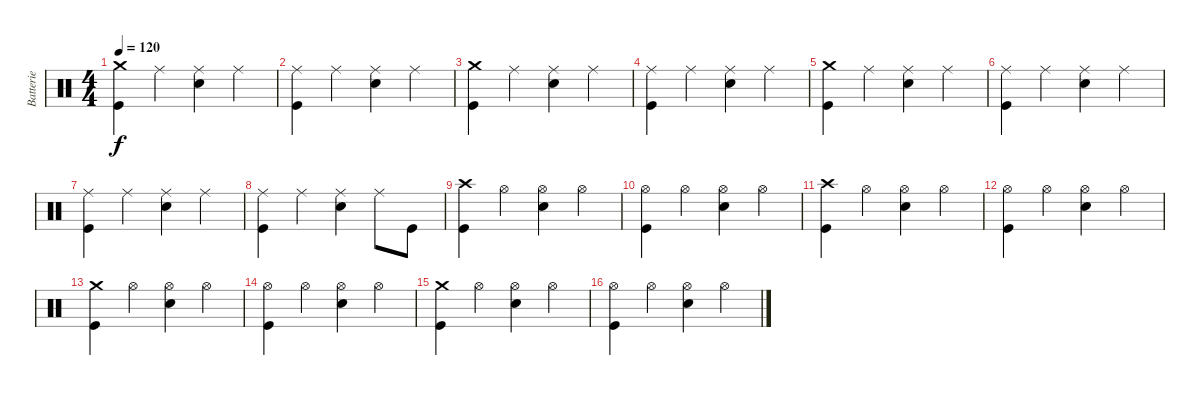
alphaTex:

\track ("Batterie" "Batterie") {instrument percussion}
\staff {score}
\articulation defaults
\ts (4 4)
\tempo 120
\clef neutral
\ks c
("Crash medium (hit)" "Kick (hit)").4{dy f} "Ride (middle)".4 ("Ride (middle)" "Electric Snare (hit)").4 "Ride (middle)".4 |
("Ride (middle)" "Kick (hit)").4 "Ride (middle)".4 ("Ride (middle)" "Electric Snare (hit)").4 "Ride (middle)".4 |
("Crash medium (hit)" "Kick (hit)").4 "Ride (middle)".4 ("Ride (middle)" "Electric Snare (hit)").4 "Ride (middle)".4 |
("Ride (middle)" "Kick (hit)").4 "Ride (middle)".4 ("Ride (middle)" "Electric Snare (hit)").4 "Ride (middle)".4 |
("Crash medium (hit)" "Kick (hit)").4 "Ride (middle)".4 ("Ride (middle)" "Electric Snare (hit)").4 "Ride (middle)".4 |
("Ride (middle)" "Kick (hit)").4 "Ride (middle)".4 ("Ride (middle)" "Electric Snare (hit)").4 "Ride (middle)".4 |
("Ride (middle)" "Kick (hit)").4 "Ride (middle)".4 ("Ride (middle)" "Electric Snare (hit)").4 "Ride (middle)".4 |
("Ride (middle)" "Kick (hit)").4 "Ride (middle)".4 ("Ride (middle)" "Electric Snare (hit)").4 "Ride (middle)".8 "Kick (hit)".8 |
("Crash high (hit)" "Kick (hit)").4 "Hi-Hat (open)".4 ("Hi-Hat (open)" "Electric Snare (hit)").4 "Hi-Hat (open)".4 |
("Hi-Hat (open)" "Kick (hit)").4 "Hi-Hat (open)".4 ("Hi-Hat (open)" "Electric Snare (hit)").4 "Hi-Hat (open)".4 |
("Crash high (hit)" "Kick (hit)").4 "Hi-Hat (open)".4 ("Hi-Hat (open)" "Electric Snare (hit)").4 "Hi-Hat (open)".4 |
("Hi-Hat (open)" "Kick (hit)").4 "Hi-Hat (open)".4 ("Hi-Hat (open)" "Electric Snare (hit)").4 "Hi-Hat (open)".4 |
("Crash medium (hit)" "Kick (hit)").4 "Hi-Hat (open)".4 ("Hi-Hat (open)" "Electric Snare (hit)").4 "Hi-Hat (open)".4 |
("Hi-Hat (open)" "Kick (hit)").4 "Hi-Hat (open)".4 ("Hi-Hat (open)" "Electric Snare (hit)").4 "Hi-Hat (open)".4 |
("Crash medium (hit)" "Kick (hit)").4 "Hi-Hat (open)".4 ("Hi-Hat (open)" "Electric Snare (hit)").4 "Hi-Hat (open)".4 |
("Hi-Hat (open)" "Kick (hit)").4 "Hi-Hat (open)".4 ("Hi-Hat (open)" "Electric Snare (hit)").4 "Hi-Hat (open)".4
